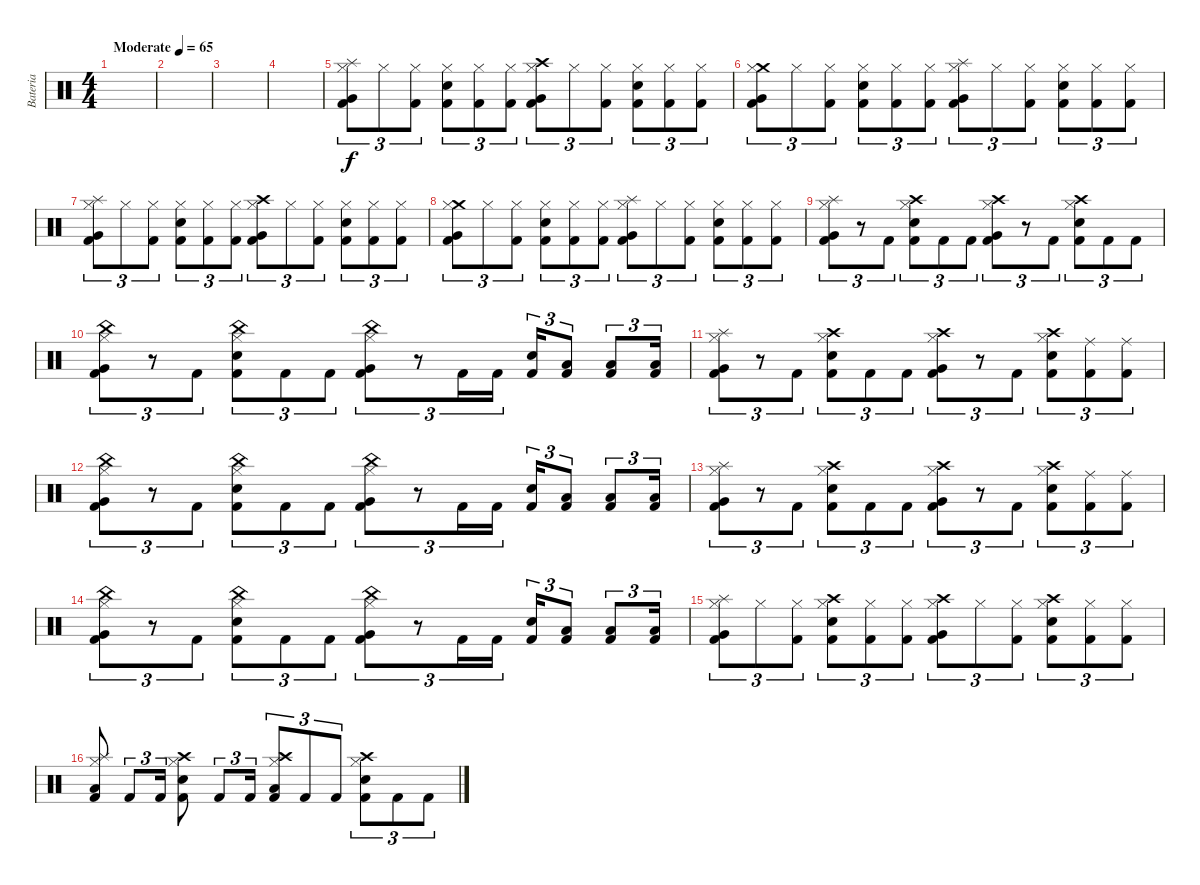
\track ("Bateria" "Bateria") {instrument percussion}
\staff {score}
\articulation defaults
\ts (4 4)
\tempo (65 "Moderate")
\clef neutral
\ks c
|
|
|
|
("Kick (hit) 2" "Splash (hit)" "Very Low Tom (hit)" "Hi-Hat (closed)").8{tu (3 2)} "Hi-Hat (closed)".8{tu (3 2)} ("Kick (hit) 2" "Hi-Hat (closed)").8{tu (3 2)} ("Snare (hit) 2" "Kick (hit) 2" "Hi-Hat (closed)").8{tu (3 2)} ("Kick (hit) 2" "Hi-Hat (closed)").8{tu (3 2)} ("Kick (hit) 2" "Hi-Hat (closed)").8{tu (3 2)} ("Kick (hit) 2" "Crash high (hit)" "Very Low Tom (hit)" "Hi-Hat (closed)").8{tu (3 2)} "Hi-Hat (closed)".8{tu (3 2)} ("Kick (hit) 2" "Hi-Hat (closed)").8{tu (3 2)} ("Snare (hit) 2" "Kick (hit) 2" "Hi-Hat (closed)").8{tu (3 2)} ("Kick (hit) 2" "Hi-Hat (closed)").8{tu (3 2)} ("Kick (hit) 2" "Hi-Hat (closed)").8{tu (3 2)} |
("Kick (hit) 2" "Crash medium (hit)" "Very Low Tom (hit)" "Hi-Hat (closed)").8{tu (3 2)} "Hi-Hat (closed)".8{tu (3 2)} ("Kick (hit) 2" "Hi-Hat (closed)").8{tu (3 2)} ("Snare (hit) 2" "Kick (hit) 2" "Hi-Hat (closed)").8{tu (3 2)} ("Kick (hit) 2" "Hi-Hat (closed)").8{tu (3 2)} ("Kick (hit) 2" "Hi-Hat (closed)").8{tu (3 2)} ("Kick (hit) 2" "Splash (hit)" "Very Low Tom (hit)" "Hi-Hat (closed)").8{tu (3 2)} "Hi-Hat (closed)".8{tu (3 2)} ("Kick (hit) 2" "Hi-Hat (closed)").8{tu (3 2)} ("Snare (hit) 2" "Kick (hit) 2" "Hi-Hat (closed)").8{tu (3 2)} ("Kick (hit) 2" "Hi-Hat (closed)").8{tu (3 2)} ("Kick (hit) 2" "Hi-Hat (closed)").8{tu (3 2)} |
("Kick (hit) 2" "Splash (hit)" "Very Low Tom (hit)" "Hi-Hat (closed)").8{tu (3 2)} "Hi-Hat (closed)".8{tu (3 2)} ("Kick (hit) 2" "Hi-Hat (closed)").8{tu (3 2)} ("Snare (hit) 2" "Kick (hit) 2" "Hi-Hat (closed)").8{tu (3 2)} ("Kick (hit) 2" "Hi-Hat (closed)").8{tu (3 2)} ("Kick (hit) 2" "Hi-Hat (closed)").8{tu (3 2)} ("Kick (hit) 2" "Crash high (hit)" "Very Low Tom (hit)" "Hi-Hat (closed)").8{tu (3 2)} "Hi-Hat (closed)".8{tu (3 2)} ("Kick (hit) 2" "Hi-Hat (closed)").8{tu (3 2)} ("Snare (hit) 2" "Kick (hit) 2" "Hi-Hat (closed)").8{tu (3 2)} ("Kick (hit) 2" "Hi-Hat (closed)").8{tu (3 2)} ("Kick (hit) 2" "Hi-Hat (closed)").8{tu (3 2)} |
("Kick (hit) 2" "Crash medium (hit)" "Very Low Tom (hit)" "Hi-Hat (closed)").8{tu (3 2)} "Hi-Hat (closed)".8{tu (3 2)} ("Kick (hit) 2" "Hi-Hat (closed)").8{tu (3 2)} ("Snare (hit) 2" "Kick (hit) 2" "Hi-Hat (closed)").8{tu (3 2)} ("Kick (hit) 2" "Hi-Hat (closed)").8{tu (3 2)} ("Kick (hit) 2" "Hi-Hat (closed)").8{tu (3 2)} ("Kick (hit) 2" "Splash (hit)" "Very Low Tom (hit)" "Hi-Hat (closed)").8{tu (3 2)} "Hi-Hat (closed)".8{tu (3 2)} ("Kick (hit) 2" "Hi-Hat (closed)").8{tu (3 2)} ("Snare (hit) 2" "Kick (hit) 2" "Hi-Hat (closed)").8{tu (3 2)} ("Kick (hit) 2" "Hi-Hat (closed)").8{tu (3 2)} ("Kick (hit) 2" "Hi-Hat (closed)").8{tu (3 2)} |
("Kick (hit) 2" "Splash (hit)" "Very Low Tom (hit)" "Hi-Hat (closed)").8{tu (3 2)} r.8{tu (3 2)} "Kick (hit) 2".8{tu (3 2)} ("Snare (hit) 2" "Kick (hit) 2" "Crash high (hit)" "Hi-Hat (closed)").8{tu (3 2)} "Kick (hit) 2".8{tu (3 2)} "Kick (hit) 2".8{tu (3 2)} ("Kick (hit) 2" "Crash high (hit)" "Very Low Tom (hit)" "Hi-Hat (closed)").8{tu (3 2)} r.8{tu (3 2)} "Kick (hit) 2".8{tu (3 2)} ("Snare (hit) 2" "Kick (hit) 2" "Crash high (hit)" "Hi-Hat (closed)").8{tu (3 2)} "Kick (hit) 2".8{tu (3 2)} "Kick (hit) 2".8{tu (3 2)} |
("Kick (hit) 2" "China (hit)" "Very Low Tom (hit)" "Hi-Hat (closed)").8{tu (3 2)} r.8{tu (3 2)} "Kick (hit) 2".8{tu (3 2)} ("Snare (hit) 2" "Kick (hit) 2" "China (hit)" "Hi-Hat (closed)").8{tu (3 2)} "Kick (hit) 2".8{tu (3 2)} "Kick (hit) 2".8{tu (3 2)} ("Kick (hit) 2" "China (hit)" "Very Low Tom (hit)" "Hi-Hat (closed)").8{tu (3 2)} r.8{tu (3 2)} "Kick (hit) 2".16{tu (3 2)} "Kick (hit) 2".16{tu (3 2)} ("Snare (hit) 2" "Kick (hit) 2").16{tu (3 2)} ("Low Floor Tom (hit)" "Kick (hit) 2").8{tu (3 2)} ("Kick (hit) 2" "Low Floor Tom (hit)").8{tu (3 2)} ("Low Floor Tom (hit)" "Kick (hit) 2").16{tu (3 2)} |
("Kick (hit) 2" "Splash (hit)" "Very Low Tom (hit)" "Hi-Hat (closed)").8{tu (3 2)} r.8{tu (3 2)} "Kick (hit) 2".8{tu (3 2)} ("Snare (hit) 2" "Kick (hit) 2" "Crash high (hit)" "Hi-Hat (closed)").8{tu (3 2)} "Kick (hit) 2".8{tu (3 2)} "Kick (hit) 2".8{tu (3 2)} ("Kick (hit) 2" "Crash high (hit)" "Very Low Tom (hit)" "Hi-Hat (closed)").8{tu (3 2)} r.8{tu (3 2)} "Kick (hit) 2".8{tu (3 2)} ("Snare (hit) 2" "Kick (hit) 2" "Crash high (hit)" "Hi-Hat (closed)").8{tu (3 2)} ("Ride (middle)" "Kick (hit) 2").8{tu (3 2)} ("Ride (middle)" "Kick (hit) 2").8{tu (3 2)} |
("Kick (hit) 2" "China (hit)" "Very Low Tom (hit)" "Hi-Hat (closed)").8{tu (3 2)} r.8{tu (3 2)} "Kick (hit) 2".8{tu (3 2)} ("Snare (hit) 2" "Kick (hit) 2" "China (hit)" "Hi-Hat (closed)").8{tu (3 2)} "Kick (hit) 2".8{tu (3 2)} "Kick (hit) 2".8{tu (3 2)} ("Kick (hit) 2" "China (hit)" "Very Low Tom (hit)" "Hi-Hat (closed)").8{tu (3 2)} r.8{tu (3 2)} "Kick (hit) 2".16{tu (3 2)} "Kick (hit) 2".16{tu (3 2)} ("Snare (hit) 2" "Kick (hit) 2").16{tu (3 2)} ("Low Floor Tom (hit)" "Kick (hit) 2").8{tu (3 2)} ("Kick (hit) 2" "Low Floor Tom (hit)").8{tu (3 2)} ("Low Floor Tom (hit)" "Kick (hit) 2").16{tu (3 2)} |
("Kick (hit) 2" "Splash (hit)" "Very Low Tom (hit)" "Hi-Hat (closed)").8{tu (3 2)} r.8{tu (3 2)} "Kick (hit) 2".8{tu (3 2)} ("Snare (hit) 2" "Kick (hit) 2" "Crash high (hit)" "Hi-Hat (closed)").8{tu (3 2)} "Kick (hit) 2".8{tu (3 2)} "Kick (hit) 2".8{tu (3 2)} ("Kick (hit) 2" "Crash high (hit)" "Very Low Tom (hit)" "Hi-Hat (closed)").8{tu (3 2)} r.8{tu (3 2)} "Kick (hit) 2".8{tu (3 2)} ("Snare (hit) 2" "Kick (hit) 2" "Crash high (hit)" "Hi-Hat (closed)").8{tu (3 2)} ("Ride (middle)" "Kick (hit) 2").8{tu (3 2)} ("Ride (middle)" "Kick (hit) 2").8{tu (3 2)} |
("Kick (hit) 2" "China (hit)" "Very Low Tom (hit)" "Hi-Hat (closed)").8{tu (3 2)} r.8{tu (3 2)} "Kick (hit) 2".8{tu (3 2)} ("Snare (hit) 2" "Kick (hit) 2" "China (hit)" "Hi-Hat (closed)").8{tu (3 2)} "Kick (hit) 2".8{tu (3 2)} "Kick (hit) 2".8{tu (3 2)} ("Kick (hit) 2" "China (hit)" "Very Low Tom (hit)" "Hi-Hat (closed)").8{tu (3 2)} r.8{tu (3 2)} "Kick (hit) 2".16{tu (3 2)} "Kick (hit) 2".16{tu (3 2)} ("Snare (hit) 2" "Kick (hit) 2").16{tu (3 2)} ("Low Floor Tom (hit)" "Kick (hit) 2").8{tu (3 2)} ("Kick (hit) 2" "Low Floor Tom (hit)").8{tu (3 2)} ("Low Floor Tom (hit)" "Kick (hit) 2").16{tu (3 2)} |
("Kick (hit) 2" "Splash (hit)" "Very Low Tom (hit)" "Hi-Hat (closed)").8{tu (3 2)} "Hi-Hat (closed)".8{tu (3 2)} ("Kick (hit) 2" "Hi-Hat (closed)").8{tu (3 2)} ("Snare (hit) 2" "Kick (hit) 2" "Crash high (hit)" "Hi-Hat (closed)").8{tu (3 2)} ("Kick (hit) 2" "Hi-Hat (closed)").8{tu (3 2)} ("Kick (hit) 2" "Hi-Hat (closed)").8{tu (3 2)} ("Kick (hit) 2" "Crash high (hit)" "Very Low Tom (hit)" "Hi-Hat (closed)").8{tu (3 2)} "Hi-Hat (closed)".8{tu (3 2)} ("Kick (hit) 2" "Hi-Hat (closed)").8{tu (3 2)} ("Snare (hit) 2" "Kick (hit) 2" "Crash high (hit)" "Hi-Hat (closed)").8{tu (3 2)} ("Kick (hit) 2" "Hi-Hat (closed)").8{tu (3 2)} ("Kick (hit) 2" "Hi-Hat (closed)").8{tu (3 2)} |
("Kick (hit) 2" "Low Floor Tom (hit)" "Splash (hit)" "Hi-Hat (closed)").8 "Kick (hit) 2".8{tu (3 2)} "Kick (hit) 2".16{tu (3 2)} ("Kick (hit) 2" "Snare (hit) 2" "Crash high (hit)" "Hi-Hat (closed)").8 "Kick (hit) 2".8{tu (3 2)} "Kick (hit) 2".16{tu (3 2)} ("Kick (hit) 2" "Low Floor Tom (hit)" "Crash high (hit)" "Hi-Hat (closed)").8{tu (3 2)} "Kick (hit) 2".8{tu (3 2)} "Kick (hit) 2".8{tu (3 2)} ("Kick (hit) 2" "Snare (hit) 2" "Crash high (hit)" "Hi-Hat (closed)").8{tu (3 2)} "Kick (hit) 2".8{tu (3 2)} "Kick (hit) 2".8{tu (3 2)}
